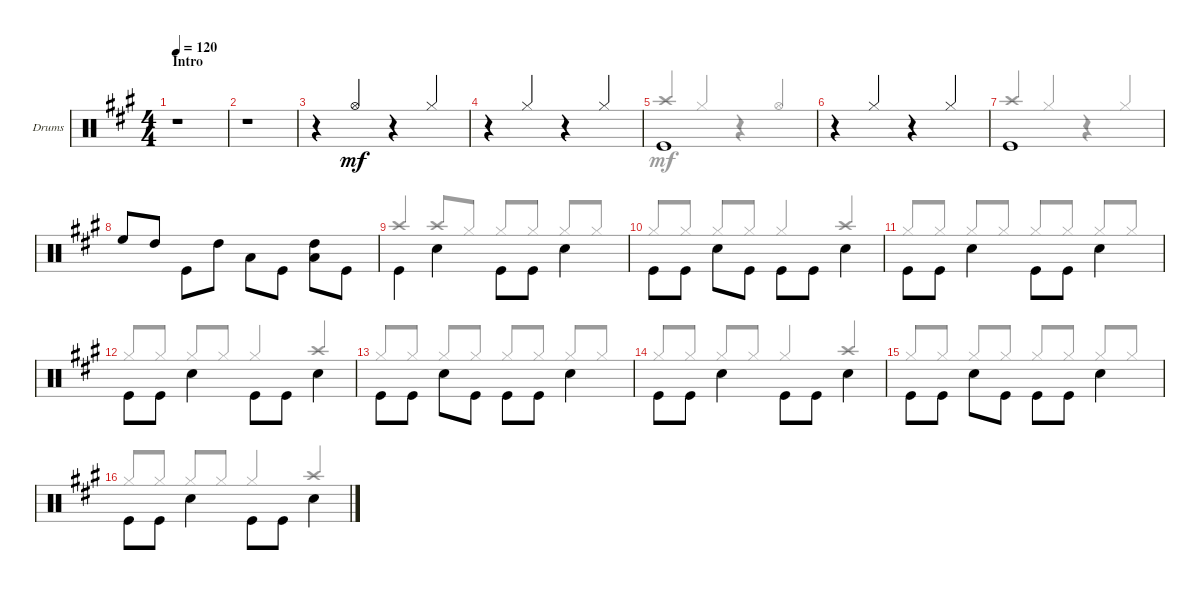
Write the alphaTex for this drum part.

\defaultSystemsLayout 4
\bracketExtendMode groupsimilarinstruments
\firstSystemTrackNameOrientation horizontal
\otherSystemsTrackNameOrientation horizontal
\track ("PETER CRISS" "Drums") {mute instrument percussion}
\staff {score}
\articulation defaults
\voice
\ts (4 4)
\section ("" "Intro")
\tempo 120
\clef neutral
\ks a
r.1{dy mf} |
r.1 |
r.4 "Hi-Hat (open)".4{beam invert} r.4 "Hi-Hat (closed)".4{beam invert} |
r.4 "Hi-Hat (closed)".4{beam invert} r.4 "Hi-Hat (closed)".4{beam invert} |
"Kick (hit)".1 |
r.4 "Hi-Hat (closed)".4{beam invert} r.4 "Hi-Hat (closed)".4{beam invert} |
"Kick (hit)".1 |
"High Floor Tom (hit)".8 "High Tom (hit)".8 "Kick (hit)".8{beam invert} "High Tom (hit)".8 "Low Tom (hit)".8{beam invert} "Kick (hit)".8 ("Low Tom (hit)" "High Tom (hit)").8{beam invert} "Kick (hit)".8 |
"Kick (hit)".4{beam invert} "Snare (hit) 2".4{beam invert} "Kick (hit)".8{beam invert} "Kick (hit)".8 "Snare (hit) 2".4{beam invert} |
"Kick (hit)".8{beam invert} "Kick (hit)".8 "Snare (hit) 2".8{beam invert} "Kick (hit)".8 "Kick (hit)".8{beam invert} "Kick (hit)".8 "Snare (hit) 2".4{beam invert} |
"Kick (hit)".8{beam invert} "Kick (hit)".8 "Snare (hit) 2".4{beam invert} "Kick (hit)".8{beam invert} "Kick (hit)".8 "Snare (hit) 2".4{beam invert} |
"Kick (hit)".8{beam invert} "Kick (hit)".8 "Snare (hit) 2".4{beam invert} "Kick (hit)".8 "Kick (hit)".8{beam invert} "Snare (hit) 2".4{beam invert} |
"Kick (hit)".8{beam invert} "Kick (hit)".8 "Snare (hit) 2".8{beam invert} "Kick (hit)".8 "Kick (hit)".8{beam invert} "Kick (hit)".8 "Snare (hit) 2".4{beam invert} |
"Kick (hit)".8{beam invert} "Kick (hit)".8 "Snare (hit) 2".4{beam invert} "Kick (hit)".8 "Kick (hit)".8{beam invert} "Snare (hit) 2".4{beam invert} |
"Kick (hit)".8{beam invert} "Kick (hit)".8 "Snare (hit) 2".8{beam invert} "Kick (hit)".8 "Kick (hit)".8{beam invert} "Kick (hit)".8 "Snare (hit) 2".4{beam invert} |
"Kick (hit)".8{beam invert} "Kick (hit)".8 "Snare (hit) 2".4{beam invert} "Kick (hit)".8 "Kick (hit)".8{beam invert} "Snare (hit) 2".4{beam invert}
\voice
\clef neutral
\ottava regular
\simile none
\ks a
|
|
|
|
"Crash high (hit)".4{beam invert} "Hi-Hat (closed)".4{beam invert} r.4 "Hi-Hat (open)".4{beam invert} |
|
"Crash high (hit)".4{beam invert} "Hi-Hat (closed)".4{beam invert} r.4 "Hi-Hat (closed)".4{beam invert} |
|
"Crash high (hit)".4{beam invert} "Crash high (hit)".8{beam invert} "Hi-Hat (closed)".8 "Hi-Hat (closed)".8{beam invert} "Hi-Hat (closed)".8 "Hi-Hat (closed)".8{beam invert} "Hi-Hat (closed)".8 |
"Hi-Hat (closed)".8{beam invert} "Hi-Hat (closed)".8 "Hi-Hat (closed)".8{beam invert} "Hi-Hat (closed)".8 "Hi-Hat (closed)".4{beam invert} "Crash high (hit)".4{beam invert} |
"Hi-Hat (closed)".8{beam invert} "Hi-Hat (closed)".8 "Hi-Hat (closed)".8{beam invert} "Hi-Hat (closed)".8 "Hi-Hat (closed)".8{beam invert} "Hi-Hat (closed)".8 "Hi-Hat (closed)".8{beam invert} "Hi-Hat (closed)".8 |
"Hi-Hat (closed)".8{beam invert} "Hi-Hat (closed)".8 "Hi-Hat (closed)".8{beam invert} "Hi-Hat (closed)".8 "Hi-Hat (closed)".4{beam invert} "Crash high (hit)".4{beam invert} |
"Hi-Hat (closed)".8{beam invert} "Hi-Hat (closed)".8 "Hi-Hat (closed)".8{beam invert} "Hi-Hat (closed)".8 "Hi-Hat (closed)".8{beam invert} "Hi-Hat (closed)".8 "Hi-Hat (closed)".8{beam invert} "Hi-Hat (closed)".8 |
"Hi-Hat (closed)".8{beam invert} "Hi-Hat (closed)".8 "Hi-Hat (closed)".8{beam invert} "Hi-Hat (closed)".8 "Hi-Hat (closed)".4{beam invert} "Crash high (hit)".4{beam invert} |
"Hi-Hat (closed)".8{beam invert} "Hi-Hat (closed)".8 "Hi-Hat (closed)".8{beam invert} "Hi-Hat (closed)".8 "Hi-Hat (closed)".8{beam invert} "Hi-Hat (closed)".8 "Hi-Hat (closed)".8{beam invert} "Hi-Hat (closed)".8 |
"Hi-Hat (closed)".8{beam invert} "Hi-Hat (closed)".8 "Hi-Hat (closed)".8{beam invert} "Hi-Hat (closed)".8 "Hi-Hat (closed)".4{beam invert} "Crash high (hit)".4{beam invert}
